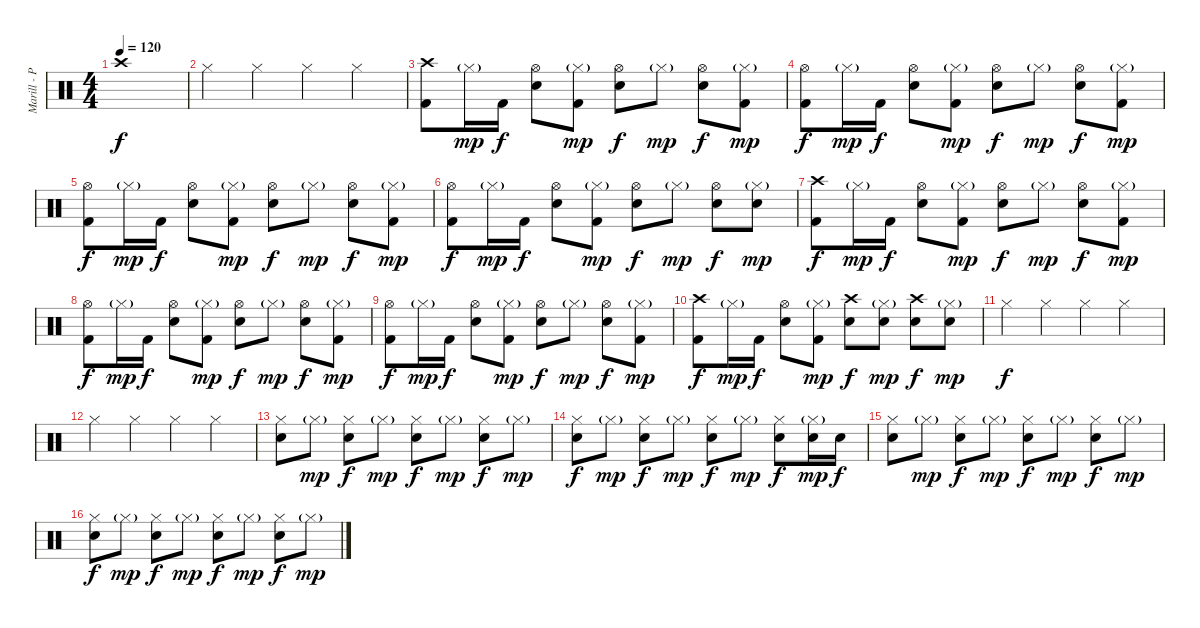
\track ("Marill - Percussion" "Marill - P") {instrument percussion}
\staff {score}
\articulation defaults
\ts (4 4)
\tempo 120
\clef neutral
\ks c "Crash high (hit)".1{dy f}
|
"Hi-Hat (closed)".4 "Hi-Hat (closed)".4 "Hi-Hat (closed)".4 "Hi-Hat (closed)".4 |
("Crash high (hit)" "Kick (hit) 2").8 "Hi-Hat (closed)"{g}.16{dy mp} "Kick (hit) 2".16{dy f} ("Hi-Hat (open)" "Snare (hit) 2").8 ("Hi-Hat (closed)"{g} "Kick (hit) 2").8{dy mp} ("Hi-Hat (open)" "Snare (hit) 2").8{dy f} "Hi-Hat (closed)"{g}.8{dy mp} ("Hi-Hat (open)" "Snare (hit) 2").8{dy f} ("Hi-Hat (closed)"{g} "Kick (hit) 2").8{dy mp} |
("Hi-Hat (open)" "Kick (hit) 2").8{dy f} "Hi-Hat (closed)"{g}.16{dy mp} "Kick (hit) 2".16{dy f} ("Hi-Hat (open)" "Snare (hit) 2").8 ("Hi-Hat (closed)"{g} "Kick (hit) 2").8{dy mp} ("Hi-Hat (open)" "Snare (hit) 2").8{dy f} "Hi-Hat (closed)"{g}.8{dy mp} ("Hi-Hat (open)" "Snare (hit) 2").8{dy f} ("Hi-Hat (closed)"{g} "Kick (hit) 2").8{dy mp} |
("Hi-Hat (open)" "Kick (hit) 2").8{dy f} "Hi-Hat (closed)"{g}.16{dy mp} "Kick (hit) 2".16{dy f} ("Hi-Hat (open)" "Snare (hit) 2").8 ("Hi-Hat (closed)"{g} "Kick (hit) 2").8{dy mp} ("Hi-Hat (open)" "Snare (hit) 2").8{dy f} "Hi-Hat (closed)"{g}.8{dy mp} ("Hi-Hat (open)" "Snare (hit) 2").8{dy f} ("Hi-Hat (closed)"{g} "Kick (hit) 2").8{dy mp} |
("Hi-Hat (open)" "Kick (hit) 2").8{dy f} "Hi-Hat (closed)"{g}.16{dy mp} "Kick (hit) 2".16{dy f} ("Hi-Hat (open)" "Snare (hit) 2").8 ("Hi-Hat (closed)"{g} "Kick (hit) 2").8{dy mp} ("Hi-Hat (open)" "Snare (hit) 2").8{dy f} "Hi-Hat (closed)"{g}.8{dy mp} ("Hi-Hat (open)" "Snare (hit) 2").8{dy f} ("Hi-Hat (closed)"{g} "Snare (hit) 2").8{dy mp} |
("Crash high (hit)" "Kick (hit) 2").8{dy f} "Hi-Hat (closed)"{g}.16{dy mp} "Kick (hit) 2".16{dy f} ("Hi-Hat (open)" "Snare (hit) 2").8 ("Hi-Hat (closed)"{g} "Kick (hit) 2").8{dy mp} ("Hi-Hat (open)" "Snare (hit) 2").8{dy f} "Hi-Hat (closed)"{g}.8{dy mp} ("Hi-Hat (open)" "Snare (hit) 2").8{dy f} ("Hi-Hat (closed)"{g} "Kick (hit) 2").8{dy mp} |
("Hi-Hat (open)" "Kick (hit) 2").8{dy f} "Hi-Hat (closed)"{g}.16{dy mp} "Kick (hit) 2".16{dy f} ("Hi-Hat (open)" "Snare (hit) 2").8 ("Hi-Hat (closed)"{g} "Kick (hit) 2").8{dy mp} ("Hi-Hat (open)" "Snare (hit) 2").8{dy f} "Hi-Hat (closed)"{g}.8{dy mp} ("Hi-Hat (open)" "Snare (hit) 2").8{dy f} ("Hi-Hat (closed)"{g} "Kick (hit) 2").8{dy mp} |
("Hi-Hat (open)" "Kick (hit) 2").8{dy f} "Hi-Hat (closed)"{g}.16{dy mp} "Kick (hit) 2".16{dy f} ("Hi-Hat (open)" "Snare (hit) 2").8 ("Hi-Hat (closed)"{g} "Kick (hit) 2").8{dy mp} ("Hi-Hat (open)" "Snare (hit) 2").8{dy f} "Hi-Hat (closed)"{g}.8{dy mp} ("Hi-Hat (open)" "Snare (hit) 2").8{dy f} ("Hi-Hat (closed)"{g} "Kick (hit) 2").8{dy mp} |
("Crash high (hit)" "Kick (hit) 2").8{dy f} "Hi-Hat (closed)"{g}.16{dy mp} "Kick (hit) 2".16{dy f} ("Hi-Hat (open)" "Snare (hit) 2").8 ("Hi-Hat (closed)"{g} "Kick (hit) 2").8{dy mp} ("Crash high (hit)" "Snare (hit) 2").8{dy f} ("Hi-Hat (closed)"{g} "Snare (hit) 2").8{dy mp} ("Crash high (hit)" "Snare (hit) 2").8{dy f} ("Hi-Hat (closed)"{g} "Snare (hit) 2").8{dy mp} |
"Hi-Hat (closed)".4{dy f} "Hi-Hat (closed)".4 "Hi-Hat (closed)".4 "Hi-Hat (closed)".4 |
"Hi-Hat (closed)".4 "Hi-Hat (closed)".4 "Hi-Hat (closed)".4 "Hi-Hat (closed)".4 |
("Hi-Hat (closed)" "Electric Snare (hit)").8 "Hi-Hat (closed)"{g}.8{dy mp} ("Hi-Hat (closed)" "Electric Snare (hit)").8{dy f} "Hi-Hat (closed)"{g}.8{dy mp} ("Hi-Hat (closed)" "Electric Snare (hit)").8{dy f} "Hi-Hat (closed)"{g}.8{dy mp} ("Hi-Hat (closed)" "Electric Snare (hit)").8{dy f} "Hi-Hat (closed)"{g}.8{dy mp} |
("Hi-Hat (closed)" "Electric Snare (hit)").8{dy f} "Hi-Hat (closed)"{g}.8{dy mp} ("Hi-Hat (closed)" "Electric Snare (hit)").8{dy f} "Hi-Hat (closed)"{g}.8{dy mp} ("Hi-Hat (closed)" "Electric Snare (hit)").8{dy f} "Hi-Hat (closed)"{g}.8{dy mp} ("Hi-Hat (closed)" "Electric Snare (hit)").8{dy f} ("Hi-Hat (closed)"{g} "Electric Snare (hit)").16{dy mp} "Electric Snare (hit)".16{dy f} |
("Hi-Hat (closed)" "Electric Snare (hit)").8 "Hi-Hat (closed)"{g}.8{dy mp} ("Hi-Hat (closed)" "Electric Snare (hit)").8{dy f} "Hi-Hat (closed)"{g}.8{dy mp} ("Hi-Hat (closed)" "Electric Snare (hit)").8{dy f} "Hi-Hat (closed)"{g}.8{dy mp} ("Hi-Hat (closed)" "Electric Snare (hit)").8{dy f} "Hi-Hat (closed)"{g}.8{dy mp} |
("Hi-Hat (closed)" "Electric Snare (hit)").8{dy f} "Hi-Hat (closed)"{g}.8{dy mp} ("Hi-Hat (closed)" "Electric Snare (hit)").8{dy f} "Hi-Hat (closed)"{g}.8{dy mp} ("Hi-Hat (closed)" "Electric Snare (hit)").8{dy f} "Hi-Hat (closed)"{g}.8{dy mp} ("Hi-Hat (closed)" "Electric Snare (hit)").8{dy f} "Hi-Hat (closed)"{g}.8{dy mp}
